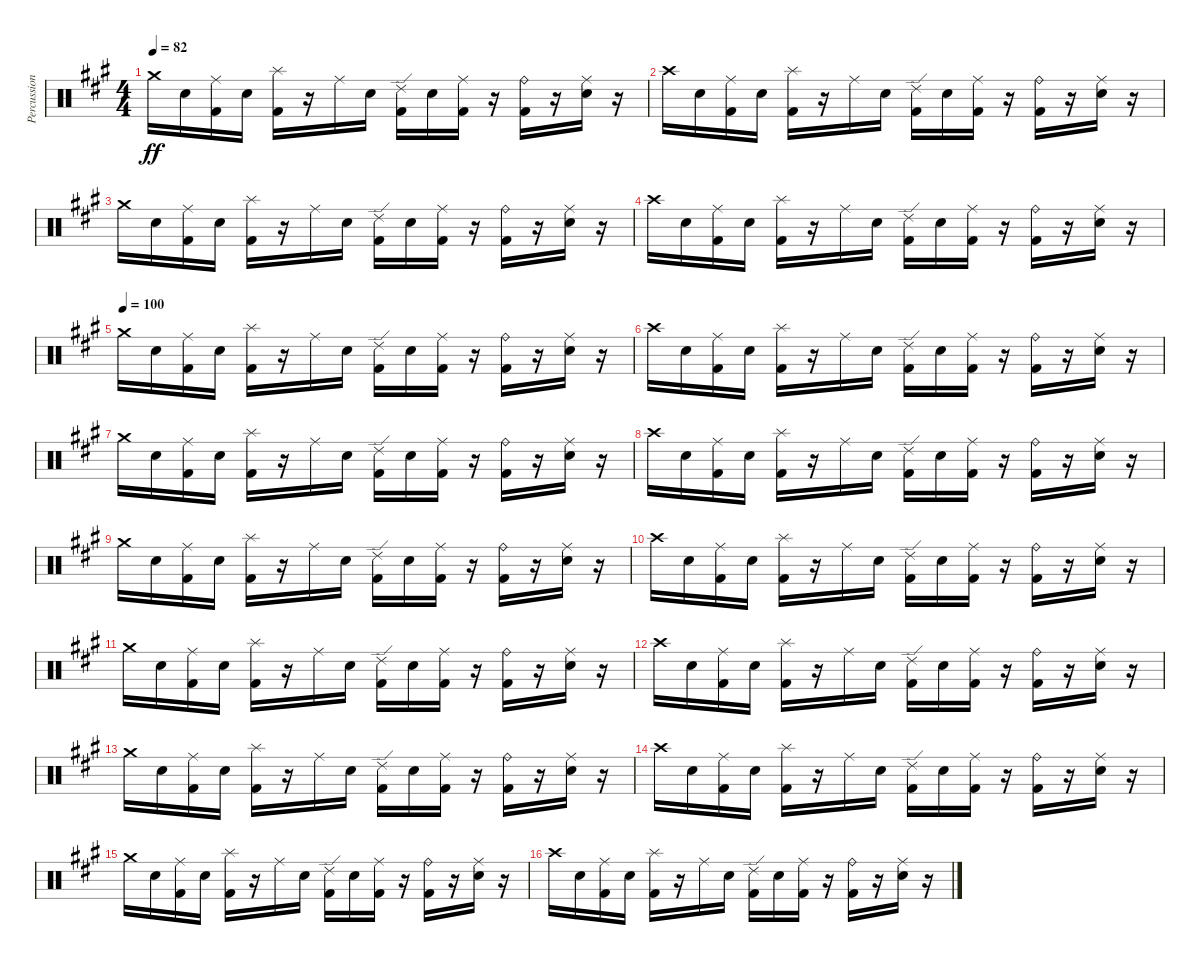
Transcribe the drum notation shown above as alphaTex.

\track ("Percussion" "Percussion") {instrument percussion}
\staff {score}
\articulation defaults
\ts (4 4)
\tempo 82
\clef neutral
\ks a "Crash medium (hit)".16{dy ff} "Electric Snare (hit)".16
("Ride (middle)" "Kick (hit) 2").16 "Electric Snare (hit)".16 ("Splash (hit)" "Kick (hit) 2").16 r.16 "Ride (middle)".16 "Electric Snare (hit)".16 ("Ride (edge) 2" "Kick (hit) 2").16 "Electric Snare (hit)".16 ("Ride (middle)" "Kick (hit) 2").16 r.16 ("Ride (bell)" "Kick (hit) 2").16 r.16 ("Ride (middle)" "Electric Snare (hit)").16 r.16 |
"Crash high (hit)".16 "Electric Snare (hit)".16 ("Ride (middle)" "Kick (hit) 2").16 "Electric Snare (hit)".16 ("Splash (hit)" "Kick (hit) 2").16 r.16 "Ride (middle)".16 "Electric Snare (hit)".16 ("Ride (edge) 2" "Kick (hit) 2").16 "Electric Snare (hit)".16 ("Ride (middle)" "Kick (hit) 2").16 r.16 ("Ride (bell)" "Kick (hit) 2").16 r.16 ("Ride (middle)" "Electric Snare (hit)").16 r.16 |
"Crash medium (hit)".16 "Electric Snare (hit)".16 ("Ride (middle)" "Kick (hit) 2").16 "Electric Snare (hit)".16 ("Splash (hit)" "Kick (hit) 2").16 r.16 "Ride (middle)".16 "Electric Snare (hit)".16 ("Ride (edge) 2" "Kick (hit) 2").16 "Electric Snare (hit)".16 ("Ride (middle)" "Kick (hit) 2").16 r.16 ("Ride (bell)" "Kick (hit) 2").16 r.16 ("Ride (middle)" "Electric Snare (hit)").16 r.16 |
"Crash high (hit)".16 "Electric Snare (hit)".16 ("Ride (middle)" "Kick (hit) 2").16 "Electric Snare (hit)".16 ("Splash (hit)" "Kick (hit) 2").16 r.16 "Ride (middle)".16 "Electric Snare (hit)".16 ("Ride (edge) 2" "Kick (hit) 2").16 "Electric Snare (hit)".16 ("Ride (middle)" "Kick (hit) 2").16 r.16 ("Ride (bell)" "Kick (hit) 2").16 r.16 ("Ride (middle)" "Electric Snare (hit)").16 r.16 |
\tempo (100)
"Crash medium (hit)".16 "Electric Snare (hit)".16 ("Ride (middle)" "Kick (hit) 2").16 "Electric Snare (hit)".16 ("Splash (hit)" "Kick (hit) 2").16 r.16 "Ride (middle)".16 "Electric Snare (hit)".16 ("Ride (edge) 2" "Kick (hit) 2").16 "Electric Snare (hit)".16 ("Ride (middle)" "Kick (hit) 2").16 r.16 ("Ride (bell)" "Kick (hit) 2").16 r.16 ("Ride (middle)" "Electric Snare (hit)").16 r.16 |
"Crash high (hit)".16 "Electric Snare (hit)".16 ("Ride (middle)" "Kick (hit) 2").16 "Electric Snare (hit)".16 ("Splash (hit)" "Kick (hit) 2").16 r.16 "Ride (middle)".16 "Electric Snare (hit)".16 ("Ride (edge) 2" "Kick (hit) 2").16 "Electric Snare (hit)".16 ("Ride (middle)" "Kick (hit) 2").16 r.16 ("Ride (bell)" "Kick (hit) 2").16 r.16 ("Ride (middle)" "Electric Snare (hit)").16 r.16 |
"Crash medium (hit)".16 "Electric Snare (hit)".16 ("Ride (middle)" "Kick (hit) 2").16 "Electric Snare (hit)".16 ("Splash (hit)" "Kick (hit) 2").16 r.16 "Ride (middle)".16 "Electric Snare (hit)".16 ("Ride (edge) 2" "Kick (hit) 2").16 "Electric Snare (hit)".16 ("Ride (middle)" "Kick (hit) 2").16 r.16 ("Ride (bell)" "Kick (hit) 2").16 r.16 ("Ride (middle)" "Electric Snare (hit)").16 r.16 |
"Crash high (hit)".16 "Electric Snare (hit)".16 ("Ride (middle)" "Kick (hit) 2").16 "Electric Snare (hit)".16 ("Splash (hit)" "Kick (hit) 2").16 r.16 "Ride (middle)".16 "Electric Snare (hit)".16 ("Ride (edge) 2" "Kick (hit) 2").16 "Electric Snare (hit)".16 ("Ride (middle)" "Kick (hit) 2").16 r.16 ("Ride (bell)" "Kick (hit) 2").16 r.16 ("Ride (middle)" "Electric Snare (hit)").16 r.16 |
"Crash medium (hit)".16 "Electric Snare (hit)".16 ("Ride (middle)" "Kick (hit) 2").16 "Electric Snare (hit)".16 ("Splash (hit)" "Kick (hit) 2").16 r.16 "Ride (middle)".16 "Electric Snare (hit)".16 ("Ride (edge) 2" "Kick (hit) 2").16 "Electric Snare (hit)".16 ("Ride (middle)" "Kick (hit) 2").16 r.16 ("Ride (bell)" "Kick (hit) 2").16 r.16 ("Ride (middle)" "Electric Snare (hit)").16 r.16 |
"Crash high (hit)".16 "Electric Snare (hit)".16 ("Ride (middle)" "Kick (hit) 2").16 "Electric Snare (hit)".16 ("Splash (hit)" "Kick (hit) 2").16 r.16 "Ride (middle)".16 "Electric Snare (hit)".16 ("Ride (edge) 2" "Kick (hit) 2").16 "Electric Snare (hit)".16 ("Ride (middle)" "Kick (hit) 2").16 r.16 ("Ride (bell)" "Kick (hit) 2").16 r.16 ("Ride (middle)" "Electric Snare (hit)").16 r.16 |
"Crash medium (hit)".16 "Electric Snare (hit)".16 ("Ride (middle)" "Kick (hit) 2").16 "Electric Snare (hit)".16 ("Splash (hit)" "Kick (hit) 2").16 r.16 "Ride (middle)".16 "Electric Snare (hit)".16 ("Ride (edge) 2" "Kick (hit) 2").16 "Electric Snare (hit)".16 ("Ride (middle)" "Kick (hit) 2").16 r.16 ("Ride (bell)" "Kick (hit) 2").16 r.16 ("Ride (middle)" "Electric Snare (hit)").16 r.16 |
"Crash high (hit)".16 "Electric Snare (hit)".16 ("Ride (middle)" "Kick (hit) 2").16 "Electric Snare (hit)".16 ("Splash (hit)" "Kick (hit) 2").16 r.16 "Ride (middle)".16 "Electric Snare (hit)".16 ("Ride (edge) 2" "Kick (hit) 2").16 "Electric Snare (hit)".16 ("Ride (middle)" "Kick (hit) 2").16 r.16 ("Ride (bell)" "Kick (hit) 2").16 r.16 ("Ride (middle)" "Electric Snare (hit)").16 r.16 |
"Crash medium (hit)".16 "Electric Snare (hit)".16 ("Ride (middle)" "Kick (hit) 2").16 "Electric Snare (hit)".16 ("Splash (hit)" "Kick (hit) 2").16 r.16 "Ride (middle)".16 "Electric Snare (hit)".16 ("Ride (edge) 2" "Kick (hit) 2").16 "Electric Snare (hit)".16 ("Ride (middle)" "Kick (hit) 2").16 r.16 ("Ride (bell)" "Kick (hit) 2").16 r.16 ("Ride (middle)" "Electric Snare (hit)").16 r.16 |
"Crash high (hit)".16 "Electric Snare (hit)".16 ("Ride (middle)" "Kick (hit) 2").16 "Electric Snare (hit)".16 ("Splash (hit)" "Kick (hit) 2").16 r.16 "Ride (middle)".16 "Electric Snare (hit)".16 ("Ride (edge) 2" "Kick (hit) 2").16 "Electric Snare (hit)".16 ("Ride (middle)" "Kick (hit) 2").16 r.16 ("Ride (bell)" "Kick (hit) 2").16 r.16 ("Ride (middle)" "Electric Snare (hit)").16 r.16 |
"Crash medium (hit)".16 "Electric Snare (hit)".16 ("Ride (middle)" "Kick (hit) 2").16 "Electric Snare (hit)".16 ("Splash (hit)" "Kick (hit) 2").16 r.16 "Ride (middle)".16 "Electric Snare (hit)".16 ("Ride (edge) 2" "Kick (hit) 2").16 "Electric Snare (hit)".16 ("Ride (middle)" "Kick (hit) 2").16 r.16 ("Ride (bell)" "Kick (hit) 2").16 r.16 ("Ride (middle)" "Electric Snare (hit)").16 r.16 |
"Crash high (hit)".16 "Electric Snare (hit)".16 ("Ride (middle)" "Kick (hit) 2").16 "Electric Snare (hit)".16 ("Splash (hit)" "Kick (hit) 2").16 r.16 "Ride (middle)".16 "Electric Snare (hit)".16 ("Ride (edge) 2" "Kick (hit) 2").16 "Electric Snare (hit)".16 ("Ride (middle)" "Kick (hit) 2").16 r.16 ("Ride (bell)" "Kick (hit) 2").16 r.16 ("Ride (middle)" "Electric Snare (hit)").16 r.16
